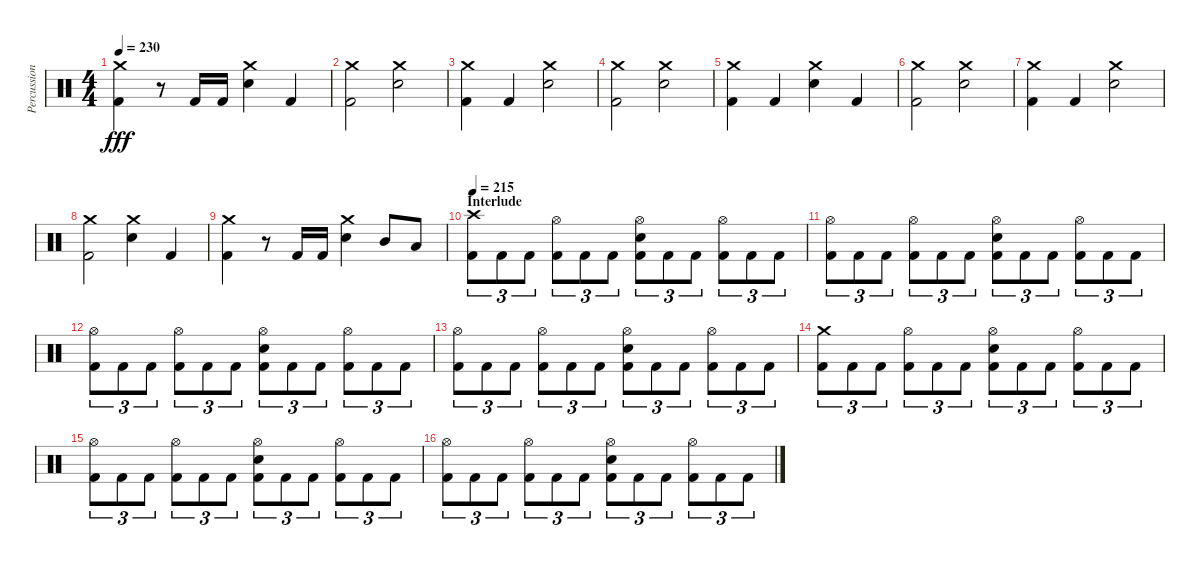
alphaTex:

\track ("Percussion" "Percussion") {instrument percussion}
\staff {score}
\articulation defaults
\ts (4 4)
\tempo 230
\clef neutral
\ks c
("Kick (hit) 2" "Crash medium (hit)").4{dy fff} r.8 "Kick (hit) 2".16 "Kick (hit) 2".16 ("Electric Snare (hit)" "Crash medium (hit)").4 "Kick (hit) 2".4 |
("Kick (hit) 2" "Crash medium (hit)").2 ("Electric Snare (hit)" "Crash medium (hit)").2 |
("Kick (hit) 2" "Crash medium (hit)").4 "Kick (hit) 2".4 ("Electric Snare (hit)" "Crash medium (hit)").2 |
("Kick (hit) 2" "Crash medium (hit)").2 ("Electric Snare (hit)" "Crash medium (hit)").2 |
("Kick (hit) 2" "Crash medium (hit)").4 "Kick (hit) 2".4 ("Electric Snare (hit)" "Crash medium (hit)").4 "Kick (hit) 2".4 |
("Kick (hit) 2" "Crash medium (hit)").2 ("Electric Snare (hit)" "Crash medium (hit)").2 |
("Kick (hit) 2" "Crash medium (hit)").4 "Kick (hit) 2".4 ("Electric Snare (hit)" "Crash medium (hit)").2 |
("Kick (hit) 2" "Crash medium (hit)").2 ("Electric Snare (hit)" "Crash medium (hit)").4 "Kick (hit) 2".4 |
("Kick (hit) 2" "Crash medium (hit)").4 r.8 "Kick (hit) 2".16 "Kick (hit) 2".16 ("Electric Snare (hit)" "Crash medium (hit)").4 "Mid Tom (hit)".8 "Low Tom (hit)".8 |
\section ("" "Interlude")
\tempo 215
("Kick (hit) 2" "Crash high (hit)").8{tu (3 2)} "Kick (hit) 2".8{tu (3 2)} "Kick (hit) 2".8{tu (3 2)} ("Kick (hit) 2" "Hi-Hat (open)").8{tu (3 2)} "Kick (hit) 2".8{tu (3 2)} "Kick (hit) 2".8{tu (3 2)} ("Kick (hit) 2" "Electric Snare (hit)" "Hi-Hat (open)").8{tu (3 2)} "Kick (hit) 2".8{tu (3 2)} "Kick (hit) 2".8{tu (3 2)} ("Kick (hit) 2" "Hi-Hat (open)").8{tu (3 2)} "Kick (hit) 2".8{tu (3 2)} "Kick (hit) 2".8{tu (3 2)} |
("Kick (hit) 2" "Hi-Hat (open)").8{tu (3 2)} "Kick (hit) 2".8{tu (3 2)} "Kick (hit) 2".8{tu (3 2)} ("Kick (hit) 2" "Hi-Hat (open)").8{tu (3 2)} "Kick (hit) 2".8{tu (3 2)} "Kick (hit) 2".8{tu (3 2)} ("Kick (hit) 2" "Electric Snare (hit)" "Hi-Hat (open)").8{tu (3 2)} "Kick (hit) 2".8{tu (3 2)} "Kick (hit) 2".8{tu (3 2)} ("Kick (hit) 2" "Hi-Hat (open)").8{tu (3 2)} "Kick (hit) 2".8{tu (3 2)} "Kick (hit) 2".8{tu (3 2)} |
("Kick (hit) 2" "Hi-Hat (open)").8{tu (3 2)} "Kick (hit) 2".8{tu (3 2)} "Kick (hit) 2".8{tu (3 2)} ("Kick (hit) 2" "Hi-Hat (open)").8{tu (3 2)} "Kick (hit) 2".8{tu (3 2)} "Kick (hit) 2".8{tu (3 2)} ("Kick (hit) 2" "Electric Snare (hit)" "Hi-Hat (open)").8{tu (3 2)} "Kick (hit) 2".8{tu (3 2)} "Kick (hit) 2".8{tu (3 2)} ("Kick (hit) 2" "Hi-Hat (open)").8{tu (3 2)} "Kick (hit) 2".8{tu (3 2)} "Kick (hit) 2".8{tu (3 2)} |
("Kick (hit) 2" "Hi-Hat (open)").8{tu (3 2)} "Kick (hit) 2".8{tu (3 2)} "Kick (hit) 2".8{tu (3 2)} ("Kick (hit) 2" "Hi-Hat (open)").8{tu (3 2)} "Kick (hit) 2".8{tu (3 2)} "Kick (hit) 2".8{tu (3 2)} ("Kick (hit) 2" "Electric Snare (hit)" "Hi-Hat (open)").8{tu (3 2)} "Kick (hit) 2".8{tu (3 2)} "Kick (hit) 2".8{tu (3 2)} ("Kick (hit) 2" "Hi-Hat (open)").8{tu (3 2)} "Kick (hit) 2".8{tu (3 2)} "Kick (hit) 2".8{tu (3 2)} |
("Kick (hit) 2" "Crash medium (hit)").8{tu (3 2)} "Kick (hit) 2".8{tu (3 2)} "Kick (hit) 2".8{tu (3 2)} ("Kick (hit) 2" "Hi-Hat (open)").8{tu (3 2)} "Kick (hit) 2".8{tu (3 2)} "Kick (hit) 2".8{tu (3 2)} ("Kick (hit) 2" "Electric Snare (hit)" "Hi-Hat (open)").8{tu (3 2)} "Kick (hit) 2".8{tu (3 2)} "Kick (hit) 2".8{tu (3 2)} ("Kick (hit) 2" "Hi-Hat (open)").8{tu (3 2)} "Kick (hit) 2".8{tu (3 2)} "Kick (hit) 2".8{tu (3 2)} |
("Kick (hit) 2" "Hi-Hat (open)").8{tu (3 2)} "Kick (hit) 2".8{tu (3 2)} "Kick (hit) 2".8{tu (3 2)} ("Kick (hit) 2" "Hi-Hat (open)").8{tu (3 2)} "Kick (hit) 2".8{tu (3 2)} "Kick (hit) 2".8{tu (3 2)} ("Kick (hit) 2" "Electric Snare (hit)" "Hi-Hat (open)").8{tu (3 2)} "Kick (hit) 2".8{tu (3 2)} "Kick (hit) 2".8{tu (3 2)} ("Kick (hit) 2" "Hi-Hat (open)").8{tu (3 2)} "Kick (hit) 2".8{tu (3 2)} "Kick (hit) 2".8{tu (3 2)} |
("Kick (hit) 2" "Hi-Hat (open)").8{tu (3 2)} "Kick (hit) 2".8{tu (3 2)} "Kick (hit) 2".8{tu (3 2)} ("Kick (hit) 2" "Hi-Hat (open)").8{tu (3 2)} "Kick (hit) 2".8{tu (3 2)} "Kick (hit) 2".8{tu (3 2)} ("Kick (hit) 2" "Electric Snare (hit)" "Hi-Hat (open)").8{tu (3 2)} "Kick (hit) 2".8{tu (3 2)} "Kick (hit) 2".8{tu (3 2)} ("Kick (hit) 2" "Hi-Hat (open)").8{tu (3 2)} "Kick (hit) 2".8{tu (3 2)} "Kick (hit) 2".8{tu (3 2)}
